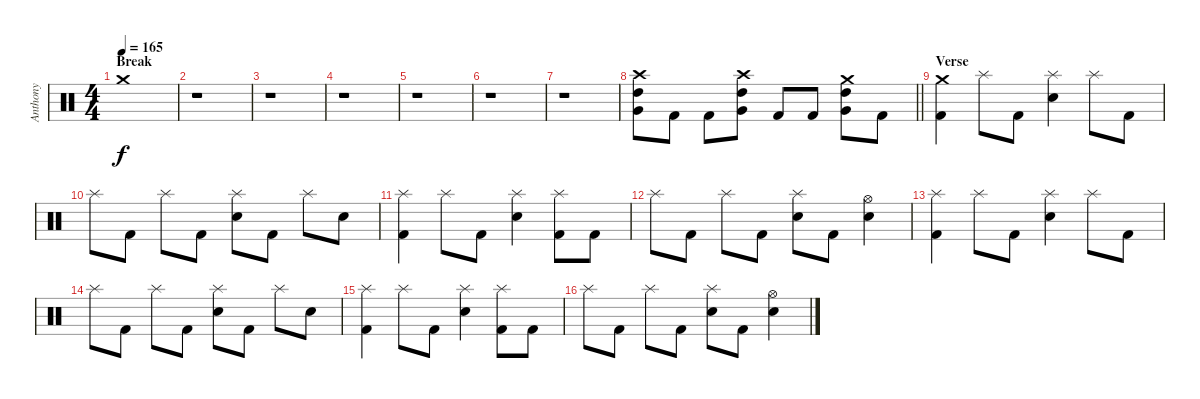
\track ("Anthony" "Anthony") {instrument percussion}
\staff {score}
\articulation defaults
\ts (4 4)
\section ("" "Break")
\tempo 165
\clef neutral
\ks c "Crash medium (hit)".1{dy f}
|
r.1 |
r.1 |
r.1 |
r.1 |
r.1 |
r.1 |
\barLineRight lightlight
("High Tom (hit)" "Very Low Tom (hit)" "Crash high (hit)").8 "Kick (hit) 2".8 "Kick (hit) 2".8 ("High Tom (hit)" "Very Low Tom (hit)" "Crash high (hit)").8 "Kick (hit) 2".8 "Kick (hit) 2".8 ("High Tom (hit)" "Very Low Tom (hit)" "Crash medium (hit)").8 "Kick (hit) 2".8 |
\section ("" "Verse")
("Crash medium (hit)" "Kick (hit) 2").4 "Splash (hit)".8 "Kick (hit) 2".8 ("Splash (hit)" "Electric Snare (hit)").4 "Splash (hit)".8 "Kick (hit) 2".8 |
"Splash (hit)".8 "Kick (hit) 2".8 "Splash (hit)".8 "Kick (hit) 2".8 ("Splash (hit)" "Electric Snare (hit)").8 "Kick (hit) 2".8 "Splash (hit)".8 "Electric Snare (hit)".8 |
("Splash (hit)" "Kick (hit) 2").4 "Splash (hit)".8 "Kick (hit) 2".8 ("Splash (hit)" "Electric Snare (hit)").4 ("Splash (hit)" "Kick (hit) 2").8 "Kick (hit) 2".8 |
"Splash (hit)".8 "Kick (hit) 2".8 "Splash (hit)".8 "Kick (hit) 2".8 ("Splash (hit)" "Electric Snare (hit)").8 "Kick (hit) 2".8 ("Hi-Hat (open)" "Electric Snare (hit)").4 |
("Splash (hit)" "Kick (hit) 2").4 "Splash (hit)".8 "Kick (hit) 2".8 ("Splash (hit)" "Electric Snare (hit)").4 "Splash (hit)".8 "Kick (hit) 2".8 |
"Splash (hit)".8 "Kick (hit) 2".8 "Splash (hit)".8 "Kick (hit) 2".8 ("Splash (hit)" "Electric Snare (hit)").8 "Kick (hit) 2".8 "Splash (hit)".8 "Electric Snare (hit)".8 |
("Splash (hit)" "Kick (hit) 2").4 "Splash (hit)".8 "Kick (hit) 2".8 ("Splash (hit)" "Electric Snare (hit)").4 ("Splash (hit)" "Kick (hit) 2").8 "Kick (hit) 2".8 |
"Splash (hit)".8 "Kick (hit) 2".8 "Splash (hit)".8 "Kick (hit) 2".8 ("Splash (hit)" "Electric Snare (hit)").8 "Kick (hit) 2".8 ("Hi-Hat (open)" "Electric Snare (hit)").4
